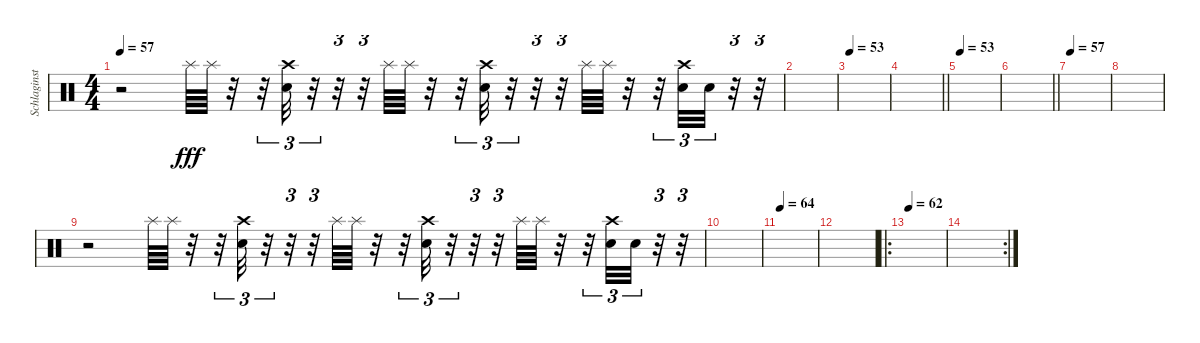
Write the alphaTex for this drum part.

\track ("Schlaginstrumente - Auswahl" "Schlaginst") {instrument percussion}
\staff {score}
\articulation defaults
\ts (4 4)
\tempo 57
\clef neutral
\ks c
r.2{dy fff} "Splash (hit)".64 "Splash (hit)".64 r.32 r.32{tu (3 2)} ("Snare (hit) 2" "Crash high (hit)").32{tu (3 2)} r.32{tu (3 2)} r.32{tu (3 2)} r.32{tu (3 2)} "Splash (hit)".64 "Splash (hit)".64 r.32 r.32{tu (3 2)} ("Snare (hit) 2" "Crash high (hit)").32{tu (3 2)} r.32{tu (3 2)} r.32{tu (3 2)} r.32{tu (3 2)} "Splash (hit)".64 "Splash (hit)".64 r.32 r.32{tu (3 2)} ("Snare (hit) 2" "Crash high (hit)").32{tu (3 2)} "Snare (hit) 2".32{tu (3 2)} r.32{tu (3 2)} r.32{tu (3 2)} |
|
\tempo 53
|
\barLineRight lightlight
|
\tempo 53
|
\barLineRight lightlight
|
\tempo 57
|
|
r.2 "Splash (hit)".64 "Splash (hit)".64 r.32 r.32{tu (3 2)} ("Snare (hit) 2" "Crash high (hit)").32{tu (3 2)} r.32{tu (3 2)} r.32{tu (3 2)} r.32{tu (3 2)} "Splash (hit)".64 "Splash (hit)".64 r.32 r.32{tu (3 2)} ("Snare (hit) 2" "Crash high (hit)").32{tu (3 2)} r.32{tu (3 2)} r.32{tu (3 2)} r.32{tu (3 2)} "Splash (hit)".64 "Splash (hit)".64 r.32 r.32{tu (3 2)} ("Snare (hit) 2" "Crash high (hit)").32{tu (3 2)} "Snare (hit) 2".32{tu (3 2)} r.32{tu (3 2)} r.32{tu (3 2)} |
|
\tempo 61
\tempo 64
|
|
\ro
\tempo 62
|
\rc 2
